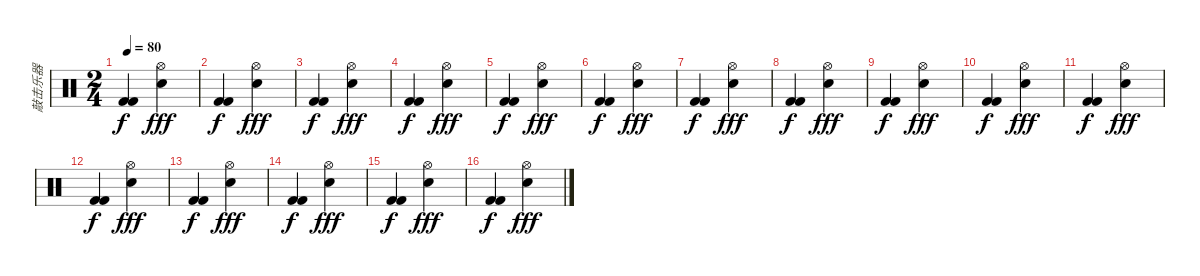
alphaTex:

\track ("敲击乐器" "敲击乐器") {instrument percussion}
\staff {score}
\articulation defaults
\ts (2 4)
\tempo 80
\clef neutral
\ks c
("Kick (hit) 2" "Kick (hit) 2").4{dy f} ("Hi-Hat (open)" "Snare (hit) 2").4{dy fff} |
("Kick (hit) 2" "Kick (hit) 2").4{dy f} ("Hi-Hat (open)" "Snare (hit) 2").4{dy fff} |
("Kick (hit) 2" "Kick (hit) 2").4{dy f} ("Hi-Hat (open)" "Snare (hit) 2").4{dy fff} |
("Kick (hit) 2" "Kick (hit) 2").4{dy f} ("Hi-Hat (open)" "Snare (hit) 2").4{dy fff} |
("Kick (hit) 2" "Kick (hit) 2").4{dy f} ("Hi-Hat (open)" "Snare (hit) 2").4{dy fff} |
("Kick (hit) 2" "Kick (hit) 2").4{dy f} ("Hi-Hat (open)" "Snare (hit) 2").4{dy fff} |
("Kick (hit) 2" "Kick (hit) 2").4{dy f} ("Hi-Hat (open)" "Snare (hit) 2").4{dy fff} |
("Kick (hit) 2" "Kick (hit) 2").4{dy f} ("Hi-Hat (open)" "Snare (hit) 2").4{dy fff} |
("Kick (hit) 2" "Kick (hit) 2").4{dy f} ("Hi-Hat (open)" "Snare (hit) 2").4{dy fff} |
("Kick (hit) 2" "Kick (hit) 2").4{dy f} ("Hi-Hat (open)" "Snare (hit) 2").4{dy fff} |
("Kick (hit) 2" "Kick (hit) 2").4{dy f} ("Hi-Hat (open)" "Snare (hit) 2").4{dy fff} |
("Kick (hit) 2" "Kick (hit) 2").4{dy f} ("Hi-Hat (open)" "Snare (hit) 2").4{dy fff} |
("Kick (hit) 2" "Kick (hit) 2").4{dy f} ("Hi-Hat (open)" "Snare (hit) 2").4{dy fff} |
("Kick (hit) 2" "Kick (hit) 2").4{dy f} ("Hi-Hat (open)" "Snare (hit) 2").4{dy fff} |
("Kick (hit) 2" "Kick (hit) 2").4{dy f} ("Hi-Hat (open)" "Snare (hit) 2").4{dy fff} |
("Kick (hit) 2" "Kick (hit) 2").4{dy f} ("Hi-Hat (open)" "Snare (hit) 2").4{dy fff}
